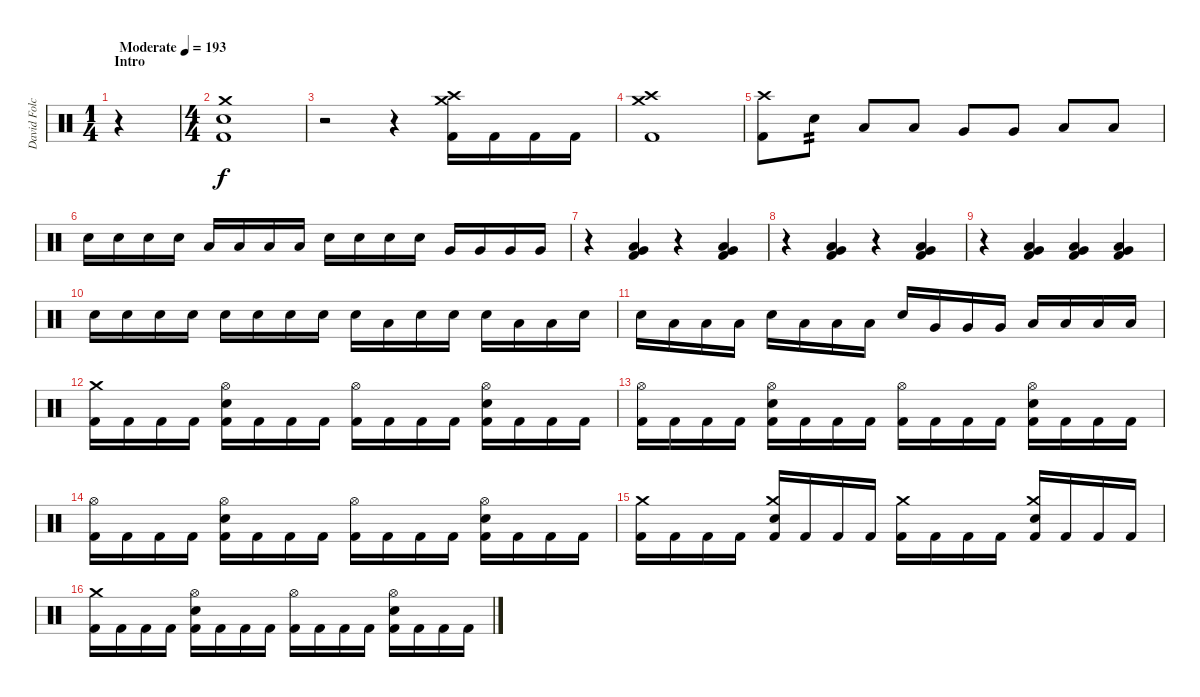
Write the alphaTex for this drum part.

\track ("David Folchitto (Drums)" "David Folc") {instrument percussion}
\staff {score}
\articulation defaults
\ts (1 4)
\section ("" "Intro")
\tempo (193 "Moderate")
\clef neutral
\ks c
r.4{dy f} |
\ts (4 4)
("Snare (hit) 2" "Crash medium (hit)" "Kick (hit) 2").1 |
r.2 r.4 ("Crash high (hit)" "Crash medium (hit)" "Kick (hit) 2").16 "Kick (hit) 2".16 "Kick (hit) 2".16 "Kick (hit) 2".16 |
("Crash high (hit)" "Crash medium (hit)" "Kick (hit) 2").1 |
("Crash high (hit)" "Kick (hit) 2").8 "Snare (hit) 2".8{tp 2} "Low Tom (hit)".8 "Low Tom (hit)".8 "Very Low Tom (hit)".8 "Very Low Tom (hit)".8 "Low Floor Tom (hit)".8 "Low Floor Tom (hit)".8 |
"Snare (hit) 2".16 "Snare (hit) 2".16 "Snare (hit) 2".16 "Snare (hit) 2".16 "Low Tom (hit)".16 "Low Tom (hit)".16 "Low Tom (hit)".16 "Low Tom (hit)".16 "Snare (hit) 2".16 "Snare (hit) 2".16 "Snare (hit) 2".16 "Snare (hit) 2".16 "Very Low Tom (hit)".16 "Very Low Tom (hit)".16 "Very Low Tom (hit)".16 "Very Low Tom (hit)".16 |
r.4 ("Very Low Tom (hit)" "Low Floor Tom (hit)" "Kick (hit) 2").4 r.4 ("Very Low Tom (hit)" "Low Floor Tom (hit)" "Kick (hit) 2").4 |
r.4 ("Very Low Tom (hit)" "Low Floor Tom (hit)" "Kick (hit) 2").4 r.4 ("Very Low Tom (hit)" "Low Floor Tom (hit)" "Kick (hit) 2").4 |
r.4 ("Very Low Tom (hit)" "Low Floor Tom (hit)" "Kick (hit) 2").4 ("Very Low Tom (hit)" "Low Floor Tom (hit)" "Kick (hit) 2").4 ("Very Low Tom (hit)" "Low Floor Tom (hit)" "Kick (hit) 2").4 |
"Snare (hit) 2".16 "Snare (hit) 2".16 "Snare (hit) 2".16 "Snare (hit) 2".16 "Snare (hit) 2".16 "Snare (hit) 2".16 "Snare (hit) 2".16 "Snare (hit) 2".16 "Snare (hit) 2".16 "Low Tom (hit)".16 "Snare (hit) 2".16 "Snare (hit) 2".16 "Snare (hit) 2".16 "Low Tom (hit)".16 "Low Tom (hit)".16 "Snare (hit) 2".16 |
"Snare (hit) 2".16 "Low Tom (hit)".16 "Low Tom (hit)".16 "Low Tom (hit)".16 "Snare (hit) 2".16 "Low Tom (hit)".16 "Low Tom (hit)".16 "Low Tom (hit)".16 "Snare (hit) 2".16 "Very Low Tom (hit)".16 "Very Low Tom (hit)".16 "Very Low Tom (hit)".16 "Low Floor Tom (hit)".16 "Low Floor Tom (hit)".16 "Low Floor Tom (hit)".16 "Low Floor Tom (hit)".16 |
("Crash medium (hit)" "Kick (hit) 2").16 "Kick (hit) 2".16 "Kick (hit) 2".16 "Kick (hit) 2".16 ("Hi-Hat (open)" "Snare (hit) 2" "Kick (hit) 2").16 "Kick (hit) 2".16 "Kick (hit) 2".16 "Kick (hit) 2".16 ("Hi-Hat (open)" "Kick (hit) 2").16 "Kick (hit) 2".16 "Kick (hit) 2".16 "Kick (hit) 2".16 ("Hi-Hat (open)" "Snare (hit) 2" "Kick (hit) 2").16 "Kick (hit) 2".16 "Kick (hit) 2".16 "Kick (hit) 2".16 |
("Hi-Hat (open)" "Kick (hit) 2").16 "Kick (hit) 2".16 "Kick (hit) 2".16 "Kick (hit) 2".16 ("Hi-Hat (open)" "Snare (hit) 2" "Kick (hit) 2").16 "Kick (hit) 2".16 "Kick (hit) 2".16 "Kick (hit) 2".16 ("Hi-Hat (open)" "Kick (hit) 2").16 "Kick (hit) 2".16 "Kick (hit) 2".16 "Kick (hit) 2".16 ("Hi-Hat (open)" "Snare (hit) 2" "Kick (hit) 2").16 "Kick (hit) 2".16 "Kick (hit) 2".16 "Kick (hit) 2".16 |
("Hi-Hat (open)" "Kick (hit) 2").16 "Kick (hit) 2".16 "Kick (hit) 2".16 "Kick (hit) 2".16 ("Hi-Hat (open)" "Snare (hit) 2" "Kick (hit) 2").16 "Kick (hit) 2".16 "Kick (hit) 2".16 "Kick (hit) 2".16 ("Hi-Hat (open)" "Kick (hit) 2").16 "Kick (hit) 2".16 "Kick (hit) 2".16 "Kick (hit) 2".16 ("Hi-Hat (open)" "Snare (hit) 2" "Kick (hit) 2").16 "Kick (hit) 2".16 "Kick (hit) 2".16 "Kick (hit) 2".16 |
("Crash medium (hit)" "Kick (hit) 2").16 "Kick (hit) 2".16 "Kick (hit) 2".16 "Kick (hit) 2".16 ("Crash medium (hit)" "Snare (hit) 2" "Kick (hit) 2").16 "Kick (hit) 2".16 "Kick (hit) 2".16 "Kick (hit) 2".16 ("Crash medium (hit)" "Kick (hit) 2").16 "Kick (hit) 2".16 "Kick (hit) 2".16 "Kick (hit) 2".16 ("Crash medium (hit)" "Snare (hit) 2" "Kick (hit) 2").16 "Kick (hit) 2".16 "Kick (hit) 2".16 "Kick (hit) 2".16 |
("Crash medium (hit)" "Kick (hit) 2").16 "Kick (hit) 2".16 "Kick (hit) 2".16 "Kick (hit) 2".16 ("Hi-Hat (open)" "Snare (hit) 2" "Kick (hit) 2").16 "Kick (hit) 2".16 "Kick (hit) 2".16 "Kick (hit) 2".16 ("Hi-Hat (open)" "Kick (hit) 2").16 "Kick (hit) 2".16 "Kick (hit) 2".16 "Kick (hit) 2".16 ("Hi-Hat (open)" "Snare (hit) 2" "Kick (hit) 2").16 "Kick (hit) 2".16 "Kick (hit) 2".16 "Kick (hit) 2".16
